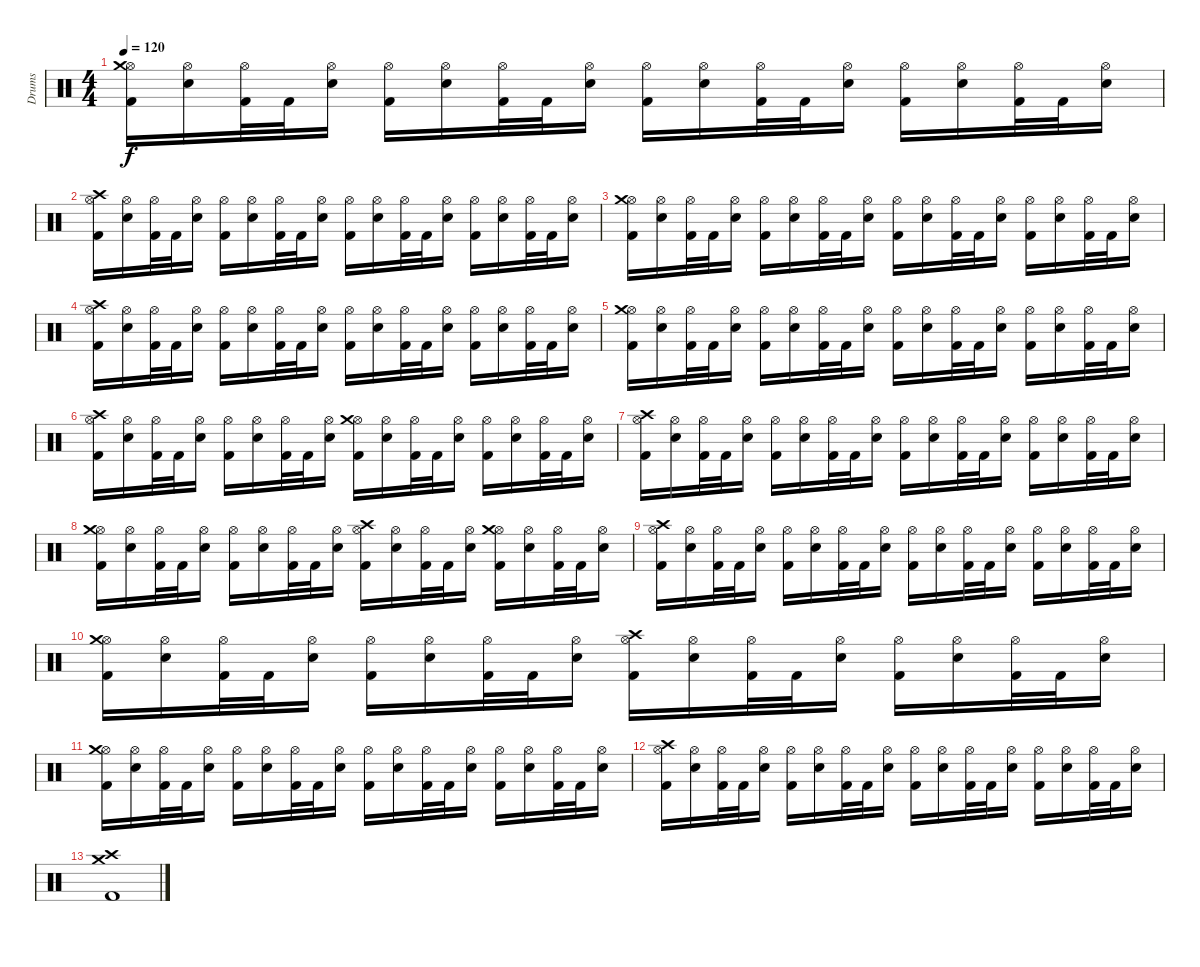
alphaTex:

\track ("Drums" "Drums") {instrument percussion}
\staff {score}
\articulation defaults
\ts (4 4)
\tempo 120
\clef neutral
\ks c
("Hi-Hat (open)" "Kick (hit) 2" "Crash medium (hit)").16{dy f} ("Hi-Hat (open)" "Electric Snare (hit)").16 ("Hi-Hat (open)" "Kick (hit) 2").32 "Kick (hit) 2".32 ("Hi-Hat (open)" "Electric Snare (hit)").16 ("Hi-Hat (open)" "Kick (hit) 2").16 ("Hi-Hat (open)" "Electric Snare (hit)").16 ("Hi-Hat (open)" "Kick (hit) 2").32 "Kick (hit) 2".32 ("Hi-Hat (open)" "Electric Snare (hit)").16 ("Hi-Hat (open)" "Kick (hit) 2").16 ("Hi-Hat (open)" "Electric Snare (hit)").16 ("Hi-Hat (open)" "Kick (hit) 2").32 "Kick (hit) 2".32 ("Hi-Hat (open)" "Electric Snare (hit)").16 ("Hi-Hat (open)" "Kick (hit) 2").16 ("Hi-Hat (open)" "Electric Snare (hit)").16 ("Hi-Hat (open)" "Kick (hit) 2").32 "Kick (hit) 2".32 ("Hi-Hat (open)" "Electric Snare (hit)").16 |
("Hi-Hat (open)" "Kick (hit) 2" "Crash high (hit)").16 ("Hi-Hat (open)" "Electric Snare (hit)").16 ("Hi-Hat (open)" "Kick (hit) 2").32 "Kick (hit) 2".32 ("Hi-Hat (open)" "Electric Snare (hit)").16 ("Hi-Hat (open)" "Kick (hit) 2").16 ("Hi-Hat (open)" "Electric Snare (hit)").16 ("Hi-Hat (open)" "Kick (hit) 2").32 "Kick (hit) 2".32 ("Hi-Hat (open)" "Electric Snare (hit)").16 ("Hi-Hat (open)" "Kick (hit) 2").16 ("Hi-Hat (open)" "Electric Snare (hit)").16 ("Hi-Hat (open)" "Kick (hit) 2").32 "Kick (hit) 2".32 ("Hi-Hat (open)" "Electric Snare (hit)").16 ("Hi-Hat (open)" "Kick (hit) 2").16 ("Hi-Hat (open)" "Electric Snare (hit)").16 ("Hi-Hat (open)" "Kick (hit) 2").32 "Kick (hit) 2".32 ("Hi-Hat (open)" "Electric Snare (hit)").16 |
("Hi-Hat (open)" "Kick (hit) 2" "Crash medium (hit)").16 ("Hi-Hat (open)" "Electric Snare (hit)").16 ("Hi-Hat (open)" "Kick (hit) 2").32 "Kick (hit) 2".32 ("Hi-Hat (open)" "Electric Snare (hit)").16 ("Hi-Hat (open)" "Kick (hit) 2").16 ("Hi-Hat (open)" "Electric Snare (hit)").16 ("Hi-Hat (open)" "Kick (hit) 2").32 "Kick (hit) 2".32 ("Hi-Hat (open)" "Electric Snare (hit)").16 ("Hi-Hat (open)" "Kick (hit) 2").16 ("Hi-Hat (open)" "Electric Snare (hit)").16 ("Hi-Hat (open)" "Kick (hit) 2").32 "Kick (hit) 2".32 ("Hi-Hat (open)" "Electric Snare (hit)").16 ("Hi-Hat (open)" "Kick (hit) 2").16 ("Hi-Hat (open)" "Electric Snare (hit)").16 ("Hi-Hat (open)" "Kick (hit) 2").32 "Kick (hit) 2".32 ("Hi-Hat (open)" "Electric Snare (hit)").16 |
("Hi-Hat (open)" "Kick (hit) 2" "Crash high (hit)").16 ("Hi-Hat (open)" "Electric Snare (hit)").16 ("Hi-Hat (open)" "Kick (hit) 2").32 "Kick (hit) 2".32 ("Hi-Hat (open)" "Electric Snare (hit)").16 ("Hi-Hat (open)" "Kick (hit) 2").16 ("Hi-Hat (open)" "Electric Snare (hit)").16 ("Hi-Hat (open)" "Kick (hit) 2").32 "Kick (hit) 2".32 ("Hi-Hat (open)" "Electric Snare (hit)").16 ("Hi-Hat (open)" "Kick (hit) 2").16 ("Hi-Hat (open)" "Electric Snare (hit)").16 ("Hi-Hat (open)" "Kick (hit) 2").32 "Kick (hit) 2".32 ("Hi-Hat (open)" "Electric Snare (hit)").16 ("Hi-Hat (open)" "Kick (hit) 2").16 ("Hi-Hat (open)" "Electric Snare (hit)").16 ("Hi-Hat (open)" "Kick (hit) 2").32 "Kick (hit) 2".32 ("Hi-Hat (open)" "Electric Snare (hit)").16 |
("Hi-Hat (open)" "Kick (hit) 2" "Crash medium (hit)").16 ("Hi-Hat (open)" "Electric Snare (hit)").16 ("Hi-Hat (open)" "Kick (hit) 2").32 "Kick (hit) 2".32 ("Hi-Hat (open)" "Electric Snare (hit)").16 ("Hi-Hat (open)" "Kick (hit) 2").16 ("Hi-Hat (open)" "Electric Snare (hit)").16 ("Hi-Hat (open)" "Kick (hit) 2").32 "Kick (hit) 2".32 ("Hi-Hat (open)" "Electric Snare (hit)").16 ("Hi-Hat (open)" "Kick (hit) 2").16 ("Hi-Hat (open)" "Electric Snare (hit)").16 ("Hi-Hat (open)" "Kick (hit) 2").32 "Kick (hit) 2".32 ("Hi-Hat (open)" "Electric Snare (hit)").16 ("Hi-Hat (open)" "Kick (hit) 2").16 ("Hi-Hat (open)" "Electric Snare (hit)").16 ("Hi-Hat (open)" "Kick (hit) 2").32 "Kick (hit) 2".32 ("Hi-Hat (open)" "Electric Snare (hit)").16 |
("Hi-Hat (open)" "Kick (hit) 2" "Crash high (hit)").16 ("Hi-Hat (open)" "Electric Snare (hit)").16 ("Hi-Hat (open)" "Kick (hit) 2").32 "Kick (hit) 2".32 ("Hi-Hat (open)" "Electric Snare (hit)").16 ("Hi-Hat (open)" "Kick (hit) 2").16 ("Hi-Hat (open)" "Electric Snare (hit)").16 ("Hi-Hat (open)" "Kick (hit) 2").32 "Kick (hit) 2".32 ("Hi-Hat (open)" "Electric Snare (hit)").16 ("Hi-Hat (open)" "Kick (hit) 2" "Crash medium (hit)").16 ("Hi-Hat (open)" "Electric Snare (hit)").16 ("Hi-Hat (open)" "Kick (hit) 2").32 "Kick (hit) 2".32 ("Hi-Hat (open)" "Electric Snare (hit)").16 ("Hi-Hat (open)" "Kick (hit) 2").16 ("Hi-Hat (open)" "Electric Snare (hit)").16 ("Hi-Hat (open)" "Kick (hit) 2").32 "Kick (hit) 2".32 ("Hi-Hat (open)" "Electric Snare (hit)").16 |
("Hi-Hat (open)" "Kick (hit) 2" "Crash high (hit)").16 ("Hi-Hat (open)" "Electric Snare (hit)").16 ("Hi-Hat (open)" "Kick (hit) 2").32 "Kick (hit) 2".32 ("Hi-Hat (open)" "Electric Snare (hit)").16 ("Hi-Hat (open)" "Kick (hit) 2").16 ("Hi-Hat (open)" "Electric Snare (hit)").16 ("Hi-Hat (open)" "Kick (hit) 2").32 "Kick (hit) 2".32 ("Hi-Hat (open)" "Electric Snare (hit)").16 ("Hi-Hat (open)" "Kick (hit) 2").16 ("Hi-Hat (open)" "Electric Snare (hit)").16 ("Hi-Hat (open)" "Kick (hit) 2").32 "Kick (hit) 2".32 ("Hi-Hat (open)" "Electric Snare (hit)").16 ("Hi-Hat (open)" "Kick (hit) 2").16 ("Hi-Hat (open)" "Electric Snare (hit)").16 ("Hi-Hat (open)" "Kick (hit) 2").32 "Kick (hit) 2".32 ("Hi-Hat (open)" "Electric Snare (hit)").16 |
("Hi-Hat (open)" "Kick (hit) 2" "Crash medium (hit)").16 ("Hi-Hat (open)" "Electric Snare (hit)").16 ("Hi-Hat (open)" "Kick (hit) 2").32 "Kick (hit) 2".32 ("Hi-Hat (open)" "Electric Snare (hit)").16 ("Hi-Hat (open)" "Kick (hit) 2").16 ("Hi-Hat (open)" "Electric Snare (hit)").16 ("Hi-Hat (open)" "Kick (hit) 2").32 "Kick (hit) 2".32 ("Hi-Hat (open)" "Electric Snare (hit)").16 ("Hi-Hat (open)" "Kick (hit) 2" "Crash high (hit)").16 ("Hi-Hat (open)" "Electric Snare (hit)").16 ("Hi-Hat (open)" "Kick (hit) 2").32 "Kick (hit) 2".32 ("Hi-Hat (open)" "Electric Snare (hit)").16 ("Hi-Hat (open)" "Kick (hit) 2" "Crash medium (hit)").16 ("Hi-Hat (open)" "Electric Snare (hit)").16 ("Hi-Hat (open)" "Kick (hit) 2").32 "Kick (hit) 2".32 ("Hi-Hat (open)" "Electric Snare (hit)").16 |
("Hi-Hat (open)" "Kick (hit) 2" "Crash high (hit)").16 ("Hi-Hat (open)" "Electric Snare (hit)").16 ("Hi-Hat (open)" "Kick (hit) 2").32 "Kick (hit) 2".32 ("Hi-Hat (open)" "Electric Snare (hit)").16 ("Hi-Hat (open)" "Kick (hit) 2").16 ("Hi-Hat (open)" "Electric Snare (hit)").16 ("Hi-Hat (open)" "Kick (hit) 2").32 "Kick (hit) 2".32 ("Hi-Hat (open)" "Electric Snare (hit)").16 ("Hi-Hat (open)" "Kick (hit) 2").16 ("Hi-Hat (open)" "Electric Snare (hit)").16 ("Hi-Hat (open)" "Kick (hit) 2").32 "Kick (hit) 2".32 ("Hi-Hat (open)" "Electric Snare (hit)").16 ("Hi-Hat (open)" "Kick (hit) 2").16 ("Hi-Hat (open)" "Electric Snare (hit)").16 ("Hi-Hat (open)" "Kick (hit) 2").32 "Kick (hit) 2".32 ("Hi-Hat (open)" "Electric Snare (hit)").16 |
("Hi-Hat (open)" "Kick (hit) 2" "Crash medium (hit)").16 ("Hi-Hat (open)" "Electric Snare (hit)").16 ("Hi-Hat (open)" "Kick (hit) 2").32 "Kick (hit) 2".32 ("Hi-Hat (open)" "Electric Snare (hit)").16 ("Hi-Hat (open)" "Kick (hit) 2").16 ("Hi-Hat (open)" "Electric Snare (hit)").16 ("Hi-Hat (open)" "Kick (hit) 2").32 "Kick (hit) 2".32 ("Hi-Hat (open)" "Electric Snare (hit)").16 ("Hi-Hat (open)" "Kick (hit) 2" "Crash high (hit)").16 ("Hi-Hat (open)" "Electric Snare (hit)").16 ("Hi-Hat (open)" "Kick (hit) 2").32 "Kick (hit) 2".32 ("Hi-Hat (open)" "Electric Snare (hit)").16 ("Hi-Hat (open)" "Kick (hit) 2").16 ("Hi-Hat (open)" "Electric Snare (hit)").16 ("Hi-Hat (open)" "Kick (hit) 2").32 "Kick (hit) 2".32 ("Hi-Hat (open)" "Electric Snare (hit)").16 |
("Hi-Hat (open)" "Kick (hit) 2" "Crash medium (hit)").16 ("Hi-Hat (open)" "Electric Snare (hit)").16 ("Hi-Hat (open)" "Kick (hit) 2").32 "Kick (hit) 2".32 ("Hi-Hat (open)" "Electric Snare (hit)").16 ("Hi-Hat (open)" "Kick (hit) 2").16 ("Hi-Hat (open)" "Electric Snare (hit)").16 ("Hi-Hat (open)" "Kick (hit) 2").32 "Kick (hit) 2".32 ("Hi-Hat (open)" "Electric Snare (hit)").16 ("Hi-Hat (open)" "Kick (hit) 2").16 ("Hi-Hat (open)" "Electric Snare (hit)").16 ("Hi-Hat (open)" "Kick (hit) 2").32 "Kick (hit) 2".32 ("Hi-Hat (open)" "Electric Snare (hit)").16 ("Hi-Hat (open)" "Kick (hit) 2").16 ("Hi-Hat (open)" "Electric Snare (hit)").16 ("Hi-Hat (open)" "Kick (hit) 2").32 "Kick (hit) 2".32 ("Hi-Hat (open)" "Electric Snare (hit)").16 |
("Hi-Hat (open)" "Kick (hit) 2" "Crash high (hit)").16 ("Hi-Hat (open)" "Electric Snare (hit)").16 ("Hi-Hat (open)" "Kick (hit) 2").32 "Kick (hit) 2".32 ("Hi-Hat (open)" "Electric Snare (hit)").16 ("Hi-Hat (open)" "Kick (hit) 2").16 ("Hi-Hat (open)" "Electric Snare (hit)").16 ("Hi-Hat (open)" "Kick (hit) 2").32 "Kick (hit) 2".32 ("Hi-Hat (open)" "Electric Snare (hit)").16 ("Hi-Hat (open)" "Kick (hit) 2").16 ("Hi-Hat (open)" "Electric Snare (hit)").16 ("Hi-Hat (open)" "Kick (hit) 2").32 "Kick (hit) 2".32 ("Hi-Hat (open)" "Electric Snare (hit)").16 ("Hi-Hat (open)" "Kick (hit) 2").16 ("Hi-Hat (open)" "Electric Snare (hit)").16 ("Hi-Hat (open)" "Kick (hit) 2").32 "Kick (hit) 2".32 ("Hi-Hat (open)" "Electric Snare (hit)").16 |
("Crash high (hit)" "Crash medium (hit)" "Kick (hit) 2").1
